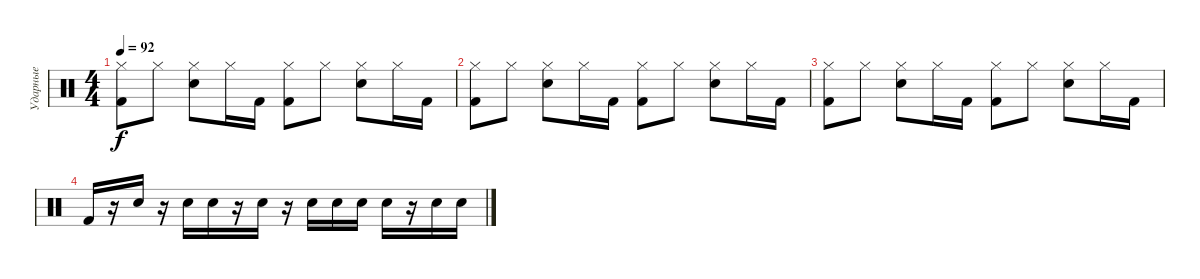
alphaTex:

\track ("Ударные" "Ударные") {instrument percussion}
\staff {score}
\articulation defaults
\ts (4 4)
\tempo 92
\clef neutral
\ks c
("Hi-Hat (closed)" "Kick (hit) 2").8{dy f} "Hi-Hat (closed)".8 ("Hi-Hat (closed)" "Snare (hit) 2").8 "Hi-Hat (closed)".16 "Kick (hit) 2".16 ("Hi-Hat (closed)" "Kick (hit) 2").8 "Hi-Hat (closed)".8 ("Hi-Hat (closed)" "Snare (hit) 2").8 "Hi-Hat (closed)".16 "Kick (hit) 2".16 |
("Hi-Hat (closed)" "Kick (hit) 2").8 "Hi-Hat (closed)".8 ("Hi-Hat (closed)" "Snare (hit) 2").8 "Hi-Hat (closed)".16 "Kick (hit) 2".16 ("Hi-Hat (closed)" "Kick (hit) 2").8 "Hi-Hat (closed)".8 ("Hi-Hat (closed)" "Snare (hit) 2").8 "Hi-Hat (closed)".16 "Kick (hit) 2".16 |
("Hi-Hat (closed)" "Kick (hit) 2").8 "Hi-Hat (closed)".8 ("Hi-Hat (closed)" "Snare (hit) 2").8 "Hi-Hat (closed)".16 "Kick (hit) 2".16 ("Hi-Hat (closed)" "Kick (hit) 2").8 "Hi-Hat (closed)".8 ("Hi-Hat (closed)" "Snare (hit) 2").8 "Hi-Hat (closed)".16 "Kick (hit) 2".16 |
"Kick (hit) 2".16 r.16 "Snare (hit) 2".16 r.16 "Snare (hit) 2".16 "Snare (hit) 2".16 r.16 "Snare (hit) 2".16 r.16 "Snare (hit) 2".16 "Snare (hit) 2".16 "Snare (hit) 2".16 "Snare (hit) 2".16 r.16 "Snare (hit) 2".16 "Snare (hit) 2".16
